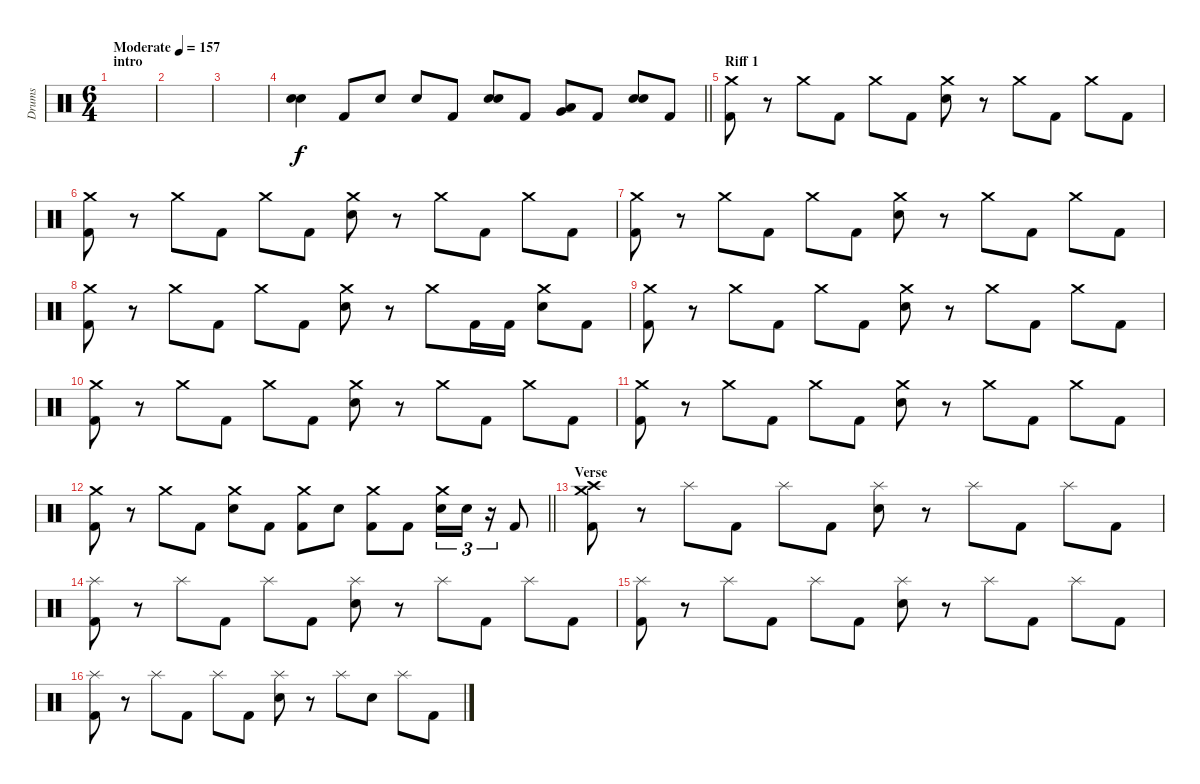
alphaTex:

\track ("Drums" "Drums") {instrument percussion}
\staff {score}
\articulation defaults
\ts (6 4)
\section ("" "intro")
\tempo (157 "Moderate")
\clef neutral
\ks c
|
|
|
\barLineRight lightlight
("Electric Snare (hit)" "Electric Snare (hit)").4{bu 240} "Kick (hit) 2".8 "Electric Snare (hit)".8 "Electric Snare (hit)".8 "Kick (hit) 2".8 ("Electric Snare (hit)" "Electric Snare (hit)").8{bu 240} "Kick (hit) 2".8 ("Low Tom (hit)" "Very Low Tom (hit)").8{bu 240} "Kick (hit) 2".8 ("Electric Snare (hit)" "Electric Snare (hit)").8{bu 240} "Kick (hit) 2".8 |
\section ("" "Riff 1")
("Crash medium (hit)" "Kick (hit) 2").8 r.8 "Crash medium (hit)".8 "Kick (hit) 2".8 "Crash medium (hit)".8 "Kick (hit) 2".8 ("Crash medium (hit)" "Electric Snare (hit)").8 r.8 "Crash medium (hit)".8 "Kick (hit) 2".8 "Crash medium (hit)".8 "Kick (hit) 2".8 |
("Crash medium (hit)" "Kick (hit) 2").8 r.8 "Crash medium (hit)".8 "Kick (hit) 2".8 "Crash medium (hit)".8 "Kick (hit) 2".8 ("Crash medium (hit)" "Electric Snare (hit)").8 r.8 "Crash medium (hit)".8 "Kick (hit) 2".8 "Crash medium (hit)".8 "Kick (hit) 2".8 |
("Crash medium (hit)" "Kick (hit) 2").8 r.8 "Crash medium (hit)".8 "Kick (hit) 2".8 "Crash medium (hit)".8 "Kick (hit) 2".8 ("Crash medium (hit)" "Electric Snare (hit)").8 r.8 "Crash medium (hit)".8 "Kick (hit) 2".8 "Crash medium (hit)".8 "Kick (hit) 2".8 |
("Crash medium (hit)" "Kick (hit) 2").8 r.8 "Crash medium (hit)".8 "Kick (hit) 2".8 "Crash medium (hit)".8 "Kick (hit) 2".8 ("Crash medium (hit)" "Electric Snare (hit)").8 r.8 "Crash medium (hit)".8 "Kick (hit) 2".16 "Kick (hit) 2".16 ("Crash medium (hit)" "Electric Snare (hit)").8 "Kick (hit) 2".8 |
("Crash medium (hit)" "Kick (hit) 2").8 r.8 "Crash medium (hit)".8 "Kick (hit) 2".8 "Crash medium (hit)".8 "Kick (hit) 2".8 ("Crash medium (hit)" "Electric Snare (hit)").8 r.8 "Crash medium (hit)".8 "Kick (hit) 2".8 "Crash medium (hit)".8 "Kick (hit) 2".8 |
("Crash medium (hit)" "Kick (hit) 2").8 r.8 "Crash medium (hit)".8 "Kick (hit) 2".8 "Crash medium (hit)".8 "Kick (hit) 2".8 ("Crash medium (hit)" "Electric Snare (hit)").8 r.8 "Crash medium (hit)".8 "Kick (hit) 2".8 "Crash medium (hit)".8 "Kick (hit) 2".8 |
("Crash medium (hit)" "Kick (hit) 2").8 r.8 "Crash medium (hit)".8 "Kick (hit) 2".8 "Crash medium (hit)".8 "Kick (hit) 2".8 ("Crash medium (hit)" "Electric Snare (hit)").8 r.8 "Crash medium (hit)".8 "Kick (hit) 2".8 "Crash medium (hit)".8 "Kick (hit) 2".8 |
\barLineRight lightlight
("Crash medium (hit)" "Kick (hit) 2").8 r.8 "Crash medium (hit)".8 "Kick (hit) 2".8 ("Crash medium (hit)" "Electric Snare (hit)").8 "Kick (hit) 2".8 ("Crash medium (hit)" "Kick (hit) 2").8 "Electric Snare (hit)".8 ("Crash medium (hit)" "Kick (hit) 2").8 "Kick (hit) 2".8 ("Crash medium (hit)" "Electric Snare (hit)").16{tu (3 2)} "Electric Snare (hit)".16{tu (3 2)} r.16{tu (3 2)} "Kick (hit) 2".8 |
\section ("" "Verse")
("Crash high (hit)" "Crash medium (hit)" "Kick (hit) 2").8 r.8 "Splash (hit)".8 "Kick (hit) 2".8 "Splash (hit)".8 "Kick (hit) 2".8 ("Splash (hit)" "Electric Snare (hit)").8 r.8 "Splash (hit)".8 "Kick (hit) 2".8 "Splash (hit)".8 "Kick (hit) 2".8 |
("Splash (hit)" "Kick (hit) 2").8 r.8 "Splash (hit)".8 "Kick (hit) 2".8 "Splash (hit)".8 "Kick (hit) 2".8 ("Splash (hit)" "Electric Snare (hit)").8 r.8 "Splash (hit)".8 "Kick (hit) 2".8 "Splash (hit)".8 "Kick (hit) 2".8 |
("Splash (hit)" "Kick (hit) 2").8 r.8 "Splash (hit)".8 "Kick (hit) 2".8 "Splash (hit)".8 "Kick (hit) 2".8 ("Splash (hit)" "Electric Snare (hit)").8 r.8 "Splash (hit)".8 "Kick (hit) 2".8 "Splash (hit)".8 "Kick (hit) 2".8 |
("Splash (hit)" "Kick (hit) 2").8 r.8 "Splash (hit)".8 "Kick (hit) 2".8 "Splash (hit)".8 "Kick (hit) 2".8 ("Splash (hit)" "Electric Snare (hit)").8 r.8 "Splash (hit)".8 "Electric Snare (hit)".8 "Splash (hit)".8 "Kick (hit) 2".8
